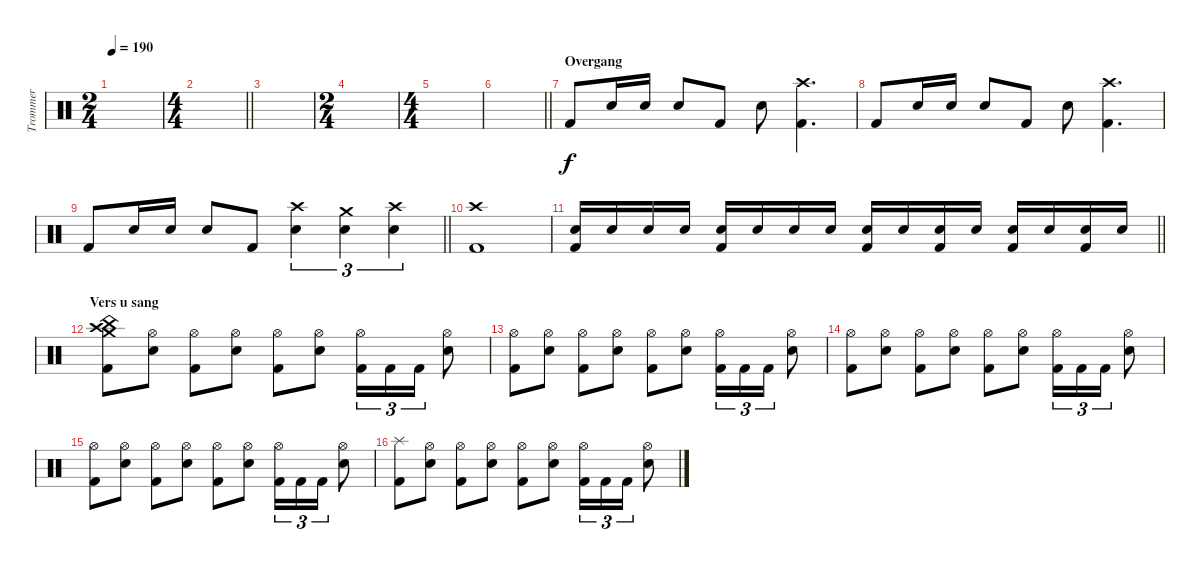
\track ("Trommer" "Trommer") {instrument percussion}
\staff {score}
\articulation defaults
\ts (2 4)
\tempo 190
\clef neutral
\ks c
|
\ts (4 4)
\barLineRight lightlight
|
|
\ts (2 4)
|
\ts (4 4)
|
\barLineRight lightlight
|
\section ("" "Overgang")
"Kick (hit) 2".8 "Snare (hit) 2".16 "Snare (hit) 2".16 "Snare (hit) 2".8 "Kick (hit) 2".8 "Snare (hit) 2".8 ("Crash high (hit)" "Kick (hit) 2").4{d} |
"Kick (hit) 2".8 "Snare (hit) 2".16 "Snare (hit) 2".16 "Snare (hit) 2".8 "Kick (hit) 2".8 "Snare (hit) 2".8 ("Crash high (hit)" "Kick (hit) 2").4{d} |
\barLineRight lightlight "Kick (hit) 2".8 "Snare (hit) 2".16 "Snare (hit) 2".16 "Snare (hit) 2".8 "Kick (hit) 2".8
("Crash high (hit)" "Snare (hit) 2").4{tu (3 2)} ("Crash medium (hit)" "Snare (hit) 2").4{tu (3 2)} ("Crash high (hit)" "Snare (hit) 2").4{tu (3 2)} |
("Crash high (hit)" "Kick (hit) 2").1 |
\barLineRight lightlight
("Snare (hit) 2" "Kick (hit) 2").16 "Snare (hit) 2".16 "Snare (hit) 2".16 "Snare (hit) 2".16 ("Snare (hit) 2" "Kick (hit) 2").16 "Snare (hit) 2".16 "Snare (hit) 2".16 "Snare (hit) 2".16 ("Snare (hit) 2" "Kick (hit) 2").16 "Snare (hit) 2".16 ("Snare (hit) 2" "Kick (hit) 2").16 "Snare (hit) 2".16 ("Snare (hit) 2" "Kick (hit) 2").16 "Snare (hit) 2".16 ("Snare (hit) 2" "Kick (hit) 2").16 "Snare (hit) 2".16 |
\section ("" "Vers u sang")
("Crash medium (hit)" "Crash high (hit)" "China (hit)" "Kick (hit) 2").8 ("Hi-Hat (open)" "Snare (hit) 2").8 ("Hi-Hat (open)" "Kick (hit) 2").8 ("Hi-Hat (open)" "Snare (hit) 2").8 ("Hi-Hat (open)" "Kick (hit) 2").8 ("Hi-Hat (open)" "Snare (hit) 2").8 ("Hi-Hat (open)" "Kick (hit) 2").16{tu (3 2)} "Kick (hit) 2".16{tu (3 2)} "Kick (hit) 2".16{tu (3 2)} ("Hi-Hat (open)" "Snare (hit) 2").8 |
("Hi-Hat (open)" "Kick (hit) 2").8 ("Hi-Hat (open)" "Snare (hit) 2").8 ("Hi-Hat (open)" "Kick (hit) 2").8 ("Hi-Hat (open)" "Snare (hit) 2").8 ("Hi-Hat (open)" "Kick (hit) 2").8 ("Hi-Hat (open)" "Snare (hit) 2").8 ("Hi-Hat (open)" "Kick (hit) 2").16{tu (3 2)} "Kick (hit) 2".16{tu (3 2)} "Kick (hit) 2".16{tu (3 2)} ("Hi-Hat (open)" "Snare (hit) 2").8 |
("Hi-Hat (open)" "Kick (hit) 2").8 ("Hi-Hat (open)" "Snare (hit) 2").8 ("Hi-Hat (open)" "Kick (hit) 2").8 ("Hi-Hat (open)" "Snare (hit) 2").8 ("Hi-Hat (open)" "Kick (hit) 2").8 ("Hi-Hat (open)" "Snare (hit) 2").8 ("Hi-Hat (open)" "Kick (hit) 2").16{tu (3 2)} "Kick (hit) 2".16{tu (3 2)} "Kick (hit) 2".16{tu (3 2)} ("Hi-Hat (open)" "Snare (hit) 2").8 |
("Hi-Hat (open)" "Kick (hit) 2").8 ("Hi-Hat (open)" "Snare (hit) 2").8 ("Hi-Hat (open)" "Kick (hit) 2").8 ("Hi-Hat (open)" "Snare (hit) 2").8 ("Hi-Hat (open)" "Kick (hit) 2").8 ("Hi-Hat (open)" "Snare (hit) 2").8 ("Hi-Hat (open)" "Kick (hit) 2").16{tu (3 2)} "Kick (hit) 2".16{tu (3 2)} "Kick (hit) 2".16{tu (3 2)} ("Hi-Hat (open)" "Snare (hit) 2").8 |
("Splash (hit)" "Kick (hit) 2").8 ("Hi-Hat (open)" "Snare (hit) 2").8 ("Hi-Hat (open)" "Kick (hit) 2").8 ("Hi-Hat (open)" "Snare (hit) 2").8 ("Hi-Hat (open)" "Kick (hit) 2").8 ("Hi-Hat (open)" "Snare (hit) 2").8 ("Hi-Hat (open)" "Kick (hit) 2").16{tu (3 2)} "Kick (hit) 2".16{tu (3 2)} "Kick (hit) 2".16{tu (3 2)} ("Hi-Hat (open)" "Snare (hit) 2").8
